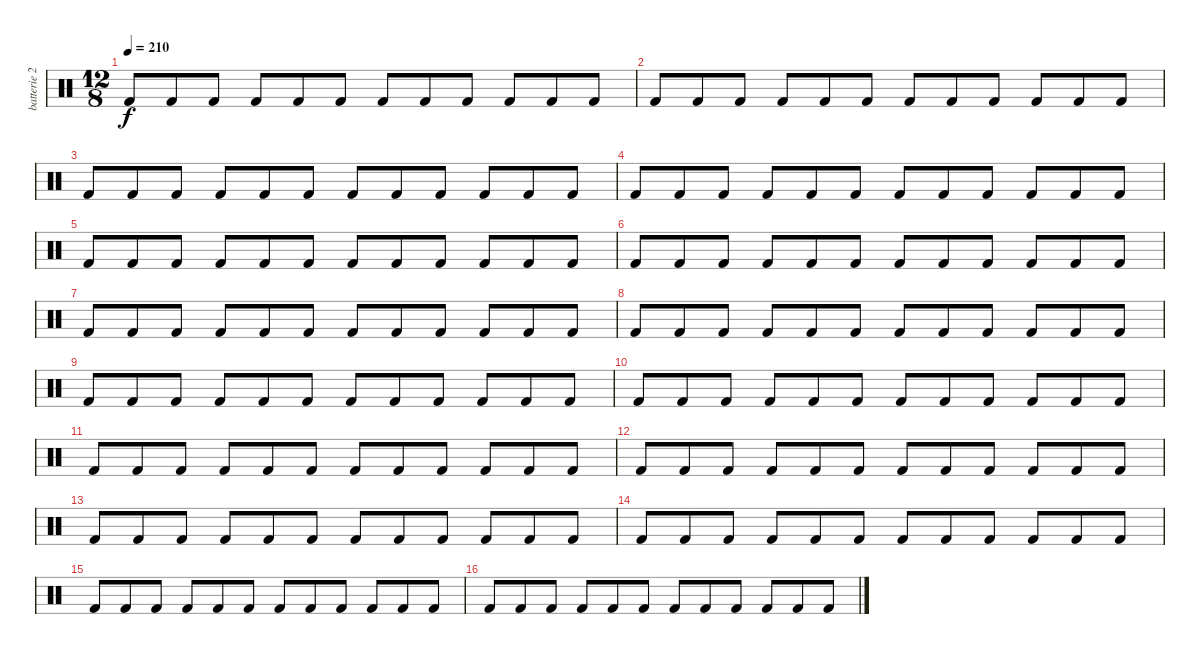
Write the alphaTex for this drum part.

\track ("batterie 2" "batterie 2") {instrument percussion}
\staff {score}
\articulation defaults
\ts (12 8)
\tempo 210
\clef neutral
\ks c "Kick (hit) 2".8{dy f} "Kick (hit) 2".8 "Kick (hit) 2".8 "Kick (hit) 2".8 "Kick (hit) 2".8 "Kick (hit) 2".8 "Kick (hit) 2".8 "Kick (hit) 2".8 "Kick (hit) 2".8 "Kick (hit) 2".8 "Kick (hit) 2".8 "Kick (hit) 2".8
|
"Kick (hit) 2".8 "Kick (hit) 2".8 "Kick (hit) 2".8 "Kick (hit) 2".8 "Kick (hit) 2".8 "Kick (hit) 2".8 "Kick (hit) 2".8 "Kick (hit) 2".8 "Kick (hit) 2".8 "Kick (hit) 2".8 "Kick (hit) 2".8 "Kick (hit) 2".8 |
"Kick (hit) 2".8 "Kick (hit) 2".8 "Kick (hit) 2".8 "Kick (hit) 2".8 "Kick (hit) 2".8 "Kick (hit) 2".8 "Kick (hit) 2".8 "Kick (hit) 2".8 "Kick (hit) 2".8 "Kick (hit) 2".8 "Kick (hit) 2".8 "Kick (hit) 2".8 |
"Kick (hit) 2".8 "Kick (hit) 2".8 "Kick (hit) 2".8 "Kick (hit) 2".8 "Kick (hit) 2".8 "Kick (hit) 2".8 "Kick (hit) 2".8 "Kick (hit) 2".8 "Kick (hit) 2".8 "Kick (hit) 2".8 "Kick (hit) 2".8 "Kick (hit) 2".8 |
"Kick (hit) 2".8 "Kick (hit) 2".8 "Kick (hit) 2".8 "Kick (hit) 2".8 "Kick (hit) 2".8 "Kick (hit) 2".8 "Kick (hit) 2".8 "Kick (hit) 2".8 "Kick (hit) 2".8 "Kick (hit) 2".8 "Kick (hit) 2".8 "Kick (hit) 2".8 |
"Kick (hit) 2".8 "Kick (hit) 2".8 "Kick (hit) 2".8 "Kick (hit) 2".8 "Kick (hit) 2".8 "Kick (hit) 2".8 "Kick (hit) 2".8 "Kick (hit) 2".8 "Kick (hit) 2".8 "Kick (hit) 2".8 "Kick (hit) 2".8 "Kick (hit) 2".8 |
"Kick (hit) 2".8 "Kick (hit) 2".8 "Kick (hit) 2".8 "Kick (hit) 2".8 "Kick (hit) 2".8 "Kick (hit) 2".8 "Kick (hit) 2".8 "Kick (hit) 2".8 "Kick (hit) 2".8 "Kick (hit) 2".8 "Kick (hit) 2".8 "Kick (hit) 2".8 |
"Kick (hit) 2".8 "Kick (hit) 2".8 "Kick (hit) 2".8 "Kick (hit) 2".8 "Kick (hit) 2".8 "Kick (hit) 2".8 "Kick (hit) 2".8 "Kick (hit) 2".8 "Kick (hit) 2".8 "Kick (hit) 2".8 "Kick (hit) 2".8 "Kick (hit) 2".8 |
"Kick (hit) 2".8 "Kick (hit) 2".8 "Kick (hit) 2".8 "Kick (hit) 2".8 "Kick (hit) 2".8 "Kick (hit) 2".8 "Kick (hit) 2".8 "Kick (hit) 2".8 "Kick (hit) 2".8 "Kick (hit) 2".8 "Kick (hit) 2".8 "Kick (hit) 2".8 |
"Kick (hit) 2".8 "Kick (hit) 2".8 "Kick (hit) 2".8 "Kick (hit) 2".8 "Kick (hit) 2".8 "Kick (hit) 2".8 "Kick (hit) 2".8 "Kick (hit) 2".8 "Kick (hit) 2".8 "Kick (hit) 2".8 "Kick (hit) 2".8 "Kick (hit) 2".8 |
"Kick (hit) 2".8 "Kick (hit) 2".8 "Kick (hit) 2".8 "Kick (hit) 2".8 "Kick (hit) 2".8 "Kick (hit) 2".8 "Kick (hit) 2".8 "Kick (hit) 2".8 "Kick (hit) 2".8 "Kick (hit) 2".8 "Kick (hit) 2".8 "Kick (hit) 2".8 |
"Kick (hit) 2".8 "Kick (hit) 2".8 "Kick (hit) 2".8 "Kick (hit) 2".8 "Kick (hit) 2".8 "Kick (hit) 2".8 "Kick (hit) 2".8 "Kick (hit) 2".8 "Kick (hit) 2".8 "Kick (hit) 2".8 "Kick (hit) 2".8 "Kick (hit) 2".8 |
"Kick (hit) 2".8 "Kick (hit) 2".8 "Kick (hit) 2".8 "Kick (hit) 2".8 "Kick (hit) 2".8 "Kick (hit) 2".8 "Kick (hit) 2".8 "Kick (hit) 2".8 "Kick (hit) 2".8 "Kick (hit) 2".8 "Kick (hit) 2".8 "Kick (hit) 2".8 |
"Kick (hit) 2".8 "Kick (hit) 2".8 "Kick (hit) 2".8 "Kick (hit) 2".8 "Kick (hit) 2".8 "Kick (hit) 2".8 "Kick (hit) 2".8 "Kick (hit) 2".8 "Kick (hit) 2".8 "Kick (hit) 2".8 "Kick (hit) 2".8 "Kick (hit) 2".8 |
"Kick (hit) 2".8 "Kick (hit) 2".8 "Kick (hit) 2".8 "Kick (hit) 2".8 "Kick (hit) 2".8 "Kick (hit) 2".8 "Kick (hit) 2".8 "Kick (hit) 2".8 "Kick (hit) 2".8 "Kick (hit) 2".8 "Kick (hit) 2".8 "Kick (hit) 2".8 |
"Kick (hit) 2".8 "Kick (hit) 2".8 "Kick (hit) 2".8 "Kick (hit) 2".8 "Kick (hit) 2".8 "Kick (hit) 2".8 "Kick (hit) 2".8 "Kick (hit) 2".8 "Kick (hit) 2".8 "Kick (hit) 2".8 "Kick (hit) 2".8 "Kick (hit) 2".8
